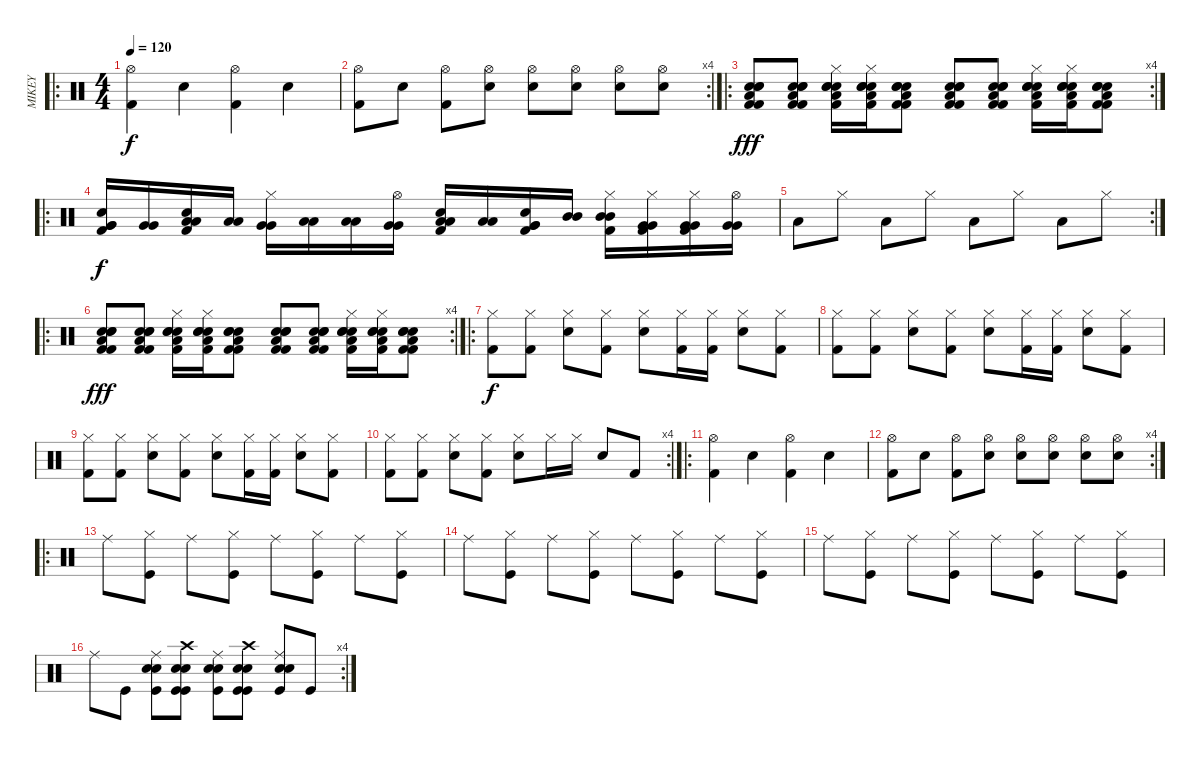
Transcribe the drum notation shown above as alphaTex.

\track ("MIKEY" "MIKEY") {instrument percussion}
\staff {score}
\articulation defaults
\ro
\ts (4 4)
\tempo 120
\clef neutral
\ks c
("Hi-Hat (open)" "Kick (hit) 2").4{dy f} "Snare (hit) 2".4 ("Hi-Hat (open)" "Kick (hit) 2").4 "Snare (hit) 2".4 |
\rc 4
("Hi-Hat (open)" "Kick (hit) 2").8 "Snare (hit) 2".8 ("Hi-Hat (open)" "Kick (hit) 2").8 ("Hi-Hat (open)" "Snare (hit) 2").8 ("Hi-Hat (open)" "Snare (hit) 2").8 ("Hi-Hat (open)" "Snare (hit) 2").8 ("Hi-Hat (open)" "Snare (hit) 2").8 ("Hi-Hat (open)" "Snare (hit) 2").8 |
\ro
\rc 4
("Low Floor Tom (hit)" "Electric Snare (hit)" "Snare (hit) 2" "Snare (hit) 2" "Kick (hit) 2" "Kick (hit) 2").8{dy fff} ("Low Floor Tom (hit)" "Electric Snare (hit)" "Snare (hit) 2" "Snare (hit) 2" "Kick (hit) 2" "Kick (hit) 2").8 ("Low Floor Tom (hit)" "Electric Snare (hit)" "Snare (hit) 2" "Snare (hit) 2" "Hi-Hat (closed)" "Kick (hit) 2").16 ("Low Floor Tom (hit)" "Electric Snare (hit)" "Snare (hit) 2" "Snare (hit) 2" "Hi-Hat (closed)" "Kick (hit) 2").16 ("Low Floor Tom (hit)" "Electric Snare (hit)" "Snare (hit) 2" "Snare (hit) 2" "Kick (hit) 2" "Kick (hit) 2").8 ("Low Floor Tom (hit)" "Electric Snare (hit)" "Snare (hit) 2" "Snare (hit) 2" "Kick (hit) 2" "Kick (hit) 2").8 ("Low Floor Tom (hit)" "Electric Snare (hit)" "Snare (hit) 2" "Snare (hit) 2" "Kick (hit) 2" "Kick (hit) 2").8 ("Low Floor Tom (hit)" "Electric Snare (hit)" "Snare (hit) 2" "Snare (hit) 2" "Hi-Hat (closed)" "Kick (hit) 2").16 ("Low Floor Tom (hit)" "Electric Snare (hit)" "Snare (hit) 2" "Snare (hit) 2" "Hi-Hat (closed)" "Kick (hit) 2").16 ("Low Floor Tom (hit)" "Electric Snare (hit)" "Snare (hit) 2" "Snare (hit) 2" "Kick (hit) 2" "Kick (hit) 2").8 |
\ro
("Electric Snare (hit)" "Kick (hit) 2" "Very Low Tom (hit)" "Very Low Tom (hit)").16{dy f} ("Very Low Tom (hit)" "Very Low Tom (hit)").16 ("Electric Snare (hit)" "Kick (hit) 2" "Low Tom (hit)" "Low Tom (hit)").16 ("Low Tom (hit)" "Low Tom (hit)").16 ("Hi-Hat (closed)" "Very Low Tom (hit)" "Very Low Tom (hit)").16 ("Low Floor Tom (hit)" "Low Floor Tom (hit)").16 ("Low Tom (hit)" "Low Tom (hit)").16 ("Hi-Hat (open)" "Very Low Tom (hit)" "Very Low Tom (hit)").16 ("Electric Snare (hit)" "Kick (hit) 2" "Low Floor Tom (hit)" "Low Floor Tom (hit)").16 ("Low Floor Tom (hit)" "Low Floor Tom (hit)").16 ("Electric Snare (hit)" "Kick (hit) 2" "Very Low Tom (hit)" "Very Low Tom (hit)").16 ("Mid Tom (hit)" "Mid Tom (hit)").16 ("Kick (hit) 2" "Hi-Hat (closed)" "Mid Tom (hit)" "Mid Tom (hit)").16 ("Kick (hit) 2" "Hi-Hat (closed)" "Very Low Tom (hit)" "Very Low Tom (hit)").16 ("Kick (hit) 2" "Hi-Hat (closed)" "Very Low Tom (hit)" "Very Low Tom (hit)").16 ("Hi-Hat (open)" "Very Low Tom (hit)" "Very Low Tom (hit)").16 |
\rc 2 "Low Floor Tom (hit)".8 "Hi-Hat (closed)".8 "Low Floor Tom (hit)".8 "Hi-Hat (closed)".8 "Low Floor Tom (hit)".8 "Hi-Hat (closed)".8 "Low Floor Tom (hit)".8 "Hi-Hat (closed)".8
|
\ro
\rc 4
("Low Floor Tom (hit)" "Electric Snare (hit)" "Snare (hit) 2" "Snare (hit) 2" "Kick (hit) 2" "Kick (hit) 2").8{dy fff} ("Low Floor Tom (hit)" "Electric Snare (hit)" "Snare (hit) 2" "Snare (hit) 2" "Kick (hit) 2" "Kick (hit) 2").8 ("Low Floor Tom (hit)" "Electric Snare (hit)" "Snare (hit) 2" "Snare (hit) 2" "Hi-Hat (closed)" "Kick (hit) 2").16 ("Low Floor Tom (hit)" "Electric Snare (hit)" "Snare (hit) 2" "Snare (hit) 2" "Hi-Hat (closed)" "Kick (hit) 2").16 ("Low Floor Tom (hit)" "Electric Snare (hit)" "Snare (hit) 2" "Snare (hit) 2" "Kick (hit) 2" "Kick (hit) 2").8 ("Low Floor Tom (hit)" "Electric Snare (hit)" "Snare (hit) 2" "Snare (hit) 2" "Kick (hit) 2" "Kick (hit) 2").8 ("Low Floor Tom (hit)" "Electric Snare (hit)" "Snare (hit) 2" "Snare (hit) 2" "Kick (hit) 2" "Kick (hit) 2").8 ("Low Floor Tom (hit)" "Electric Snare (hit)" "Snare (hit) 2" "Snare (hit) 2" "Hi-Hat (closed)" "Kick (hit) 2").16 ("Low Floor Tom (hit)" "Electric Snare (hit)" "Snare (hit) 2" "Snare (hit) 2" "Hi-Hat (closed)" "Kick (hit) 2").16 ("Low Floor Tom (hit)" "Electric Snare (hit)" "Snare (hit) 2" "Snare (hit) 2" "Kick (hit) 2" "Kick (hit) 2").8 |
\ro
("Hi-Hat (closed)" "Kick (hit) 2").8{dy f} ("Hi-Hat (closed)" "Kick (hit) 2").8 ("Hi-Hat (closed)" "Electric Snare (hit)").8 ("Hi-Hat (closed)" "Kick (hit) 2").8 ("Hi-Hat (closed)" "Electric Snare (hit)").8 ("Hi-Hat (closed)" "Kick (hit) 2").16 ("Hi-Hat (closed)" "Kick (hit) 2").16 ("Hi-Hat (closed)" "Snare (hit) 2").8 ("Hi-Hat (closed)" "Kick (hit) 2").8 |
("Hi-Hat (closed)" "Kick (hit) 2").8 ("Hi-Hat (closed)" "Kick (hit) 2").8 ("Hi-Hat (closed)" "Electric Snare (hit)").8 ("Hi-Hat (closed)" "Kick (hit) 2").8 ("Hi-Hat (closed)" "Electric Snare (hit)").8 ("Hi-Hat (closed)" "Kick (hit) 2").16 ("Hi-Hat (closed)" "Kick (hit) 2").16 ("Hi-Hat (closed)" "Snare (hit) 2").8 ("Hi-Hat (closed)" "Kick (hit) 2").8 |
("Hi-Hat (closed)" "Kick (hit) 2").8 ("Hi-Hat (closed)" "Kick (hit) 2").8 ("Hi-Hat (closed)" "Electric Snare (hit)").8 ("Hi-Hat (closed)" "Kick (hit) 2").8 ("Hi-Hat (closed)" "Electric Snare (hit)").8 ("Hi-Hat (closed)" "Kick (hit) 2").16 ("Hi-Hat (closed)" "Kick (hit) 2").16 ("Hi-Hat (closed)" "Snare (hit) 2").8 ("Hi-Hat (closed)" "Kick (hit) 2").8 |
\rc 4
("Hi-Hat (closed)" "Kick (hit) 2").8 ("Hi-Hat (closed)" "Kick (hit) 2").8 ("Hi-Hat (closed)" "Electric Snare (hit)").8 ("Hi-Hat (closed)" "Kick (hit) 2").8 ("Hi-Hat (closed)" "Electric Snare (hit)").8 "Hi-Hat (closed)".16 "Hi-Hat (closed)".16 "Snare (hit) 2".8 "Kick (hit) 2".8 |
\ro
("Hi-Hat (open)" "Kick (hit) 2").4 "Snare (hit) 2".4 ("Hi-Hat (open)" "Kick (hit) 2").4 "Snare (hit) 2".4 |
\rc 4
("Hi-Hat (open)" "Kick (hit) 2").8 "Snare (hit) 2".8 ("Hi-Hat (open)" "Kick (hit) 2").8 ("Hi-Hat (open)" "Snare (hit) 2").8 ("Hi-Hat (open)" "Snare (hit) 2").8 ("Hi-Hat (open)" "Snare (hit) 2").8 ("Hi-Hat (open)" "Snare (hit) 2").8 ("Hi-Hat (open)" "Snare (hit) 2").8 |
\ro "Ride (middle)".8
("Hi-Hat (closed)" "Kick (hit)").8 "Ride (middle)".8 ("Hi-Hat (closed)" "Kick (hit)").8 "Ride (middle)".8 ("Hi-Hat (closed)" "Kick (hit)").8 "Ride (middle)".8 ("Hi-Hat (closed)" "Kick (hit)").8 |
"Ride (middle)".8 ("Hi-Hat (closed)" "Kick (hit)").8 "Ride (middle)".8 ("Hi-Hat (closed)" "Kick (hit)").8 "Ride (middle)".8 ("Hi-Hat (closed)" "Kick (hit)").8 "Ride (middle)".8 ("Hi-Hat (closed)" "Kick (hit)").8 |
"Ride (middle)".8 ("Hi-Hat (closed)" "Kick (hit)").8 "Ride (middle)".8 ("Hi-Hat (closed)" "Kick (hit)").8 "Ride (middle)".8 ("Hi-Hat (closed)" "Kick (hit)").8 "Ride (middle)".8 ("Hi-Hat (closed)" "Kick (hit)").8 |
\rc 4 "Ride (middle)".8 "Kick (hit)".8
("Electric Snare (hit)" "Electric Snare (hit)" "Kick (hit)" "Ride (middle)").8 ("Crash high (hit)" "Electric Snare (hit)" "Electric Snare (hit)" "Kick (hit)" "Kick (hit)").8 ("Electric Snare (hit)" "Electric Snare (hit)" "Kick (hit)" "Ride (middle)").8 ("Crash high (hit)" "Electric Snare (hit)" "Electric Snare (hit)" "Kick (hit)" "Kick (hit)").8 ("Electric Snare (hit)" "Electric Snare (hit)" "Kick (hit)" "Ride (middle)").8 "Kick (hit)".8
